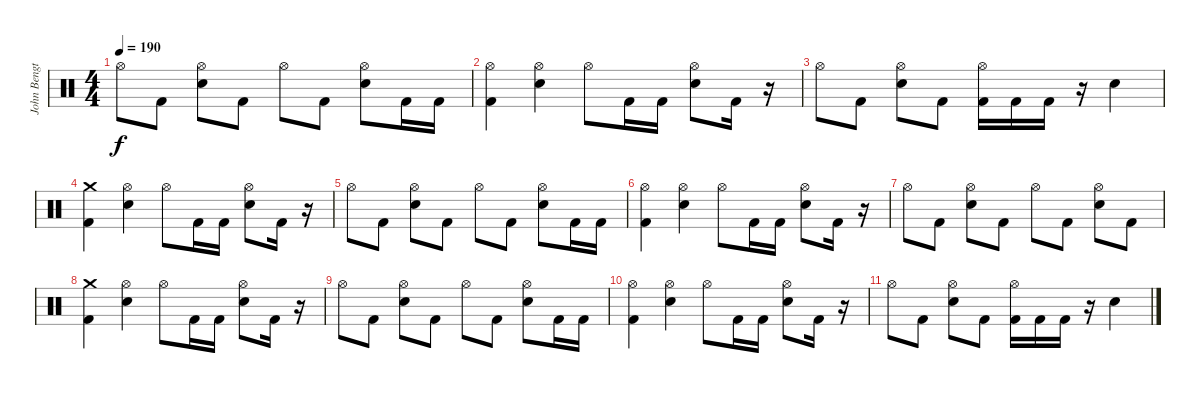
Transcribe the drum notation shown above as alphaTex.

\track ("John Bengtsson" "John Bengt") {instrument percussion}
\staff {score}
\articulation defaults
\ts (4 4)
\tempo 190
\clef neutral
\ks c "Hi-Hat (open)".8{dy f} "Kick (hit) 2".8
("Hi-Hat (open)" "Electric Snare (hit)").8 "Kick (hit) 2".8 "Hi-Hat (open)".8 "Kick (hit) 2".8 ("Hi-Hat (open)" "Electric Snare (hit)").8 "Kick (hit) 2".16 "Kick (hit) 2".16 |
("Hi-Hat (open)" "Kick (hit) 2").4 ("Hi-Hat (open)" "Electric Snare (hit)").4 "Hi-Hat (open)".8 "Kick (hit) 2".16 "Kick (hit) 2".16 ("Hi-Hat (open)" "Electric Snare (hit)").8 "Kick (hit) 2".16 r.16 |
"Hi-Hat (open)".8 "Kick (hit) 2".8 ("Hi-Hat (open)" "Electric Snare (hit)").8 "Kick (hit) 2".8 ("Hi-Hat (open)" "Kick (hit) 2").16 "Kick (hit) 2".16 "Kick (hit) 2".16 r.16 "Electric Snare (hit)".4 |
("Crash medium (hit)" "Kick (hit) 2").4 ("Hi-Hat (open)" "Electric Snare (hit)").4 "Hi-Hat (open)".8 "Kick (hit) 2".16 "Kick (hit) 2".16 ("Hi-Hat (open)" "Electric Snare (hit)").8 "Kick (hit) 2".16 r.16 |
"Hi-Hat (open)".8 "Kick (hit) 2".8 ("Hi-Hat (open)" "Electric Snare (hit)").8 "Kick (hit) 2".8 "Hi-Hat (open)".8 "Kick (hit) 2".8 ("Hi-Hat (open)" "Electric Snare (hit)").8 "Kick (hit) 2".16 "Kick (hit) 2".16 |
("Hi-Hat (open)" "Kick (hit) 2").4 ("Hi-Hat (open)" "Electric Snare (hit)").4 "Hi-Hat (open)".8 "Kick (hit) 2".16 "Kick (hit) 2".16 ("Hi-Hat (open)" "Electric Snare (hit)").8 "Kick (hit) 2".16 r.16 |
"Hi-Hat (open)".8 "Kick (hit) 2".8 ("Hi-Hat (open)" "Electric Snare (hit)").8 "Kick (hit) 2".8 "Hi-Hat (open)".8 "Kick (hit) 2".8 ("Hi-Hat (open)" "Electric Snare (hit)").8 "Kick (hit) 2".8 |
("Crash medium (hit)" "Kick (hit) 2").4 ("Hi-Hat (open)" "Electric Snare (hit)").4 "Hi-Hat (open)".8 "Kick (hit) 2".16 "Kick (hit) 2".16 ("Hi-Hat (open)" "Electric Snare (hit)").8 "Kick (hit) 2".16 r.16 |
"Hi-Hat (open)".8 "Kick (hit) 2".8 ("Hi-Hat (open)" "Electric Snare (hit)").8 "Kick (hit) 2".8 "Hi-Hat (open)".8 "Kick (hit) 2".8 ("Hi-Hat (open)" "Electric Snare (hit)").8 "Kick (hit) 2".16 "Kick (hit) 2".16 |
("Hi-Hat (open)" "Kick (hit) 2").4 ("Hi-Hat (open)" "Electric Snare (hit)").4 "Hi-Hat (open)".8 "Kick (hit) 2".16 "Kick (hit) 2".16 ("Hi-Hat (open)" "Electric Snare (hit)").8 "Kick (hit) 2".16 r.16 |
"Hi-Hat (open)".8 "Kick (hit) 2".8 ("Hi-Hat (open)" "Electric Snare (hit)").8 "Kick (hit) 2".8 ("Hi-Hat (open)" "Kick (hit) 2").16 "Kick (hit) 2".16 "Kick (hit) 2".16 r.16 "Electric Snare (hit)".4
